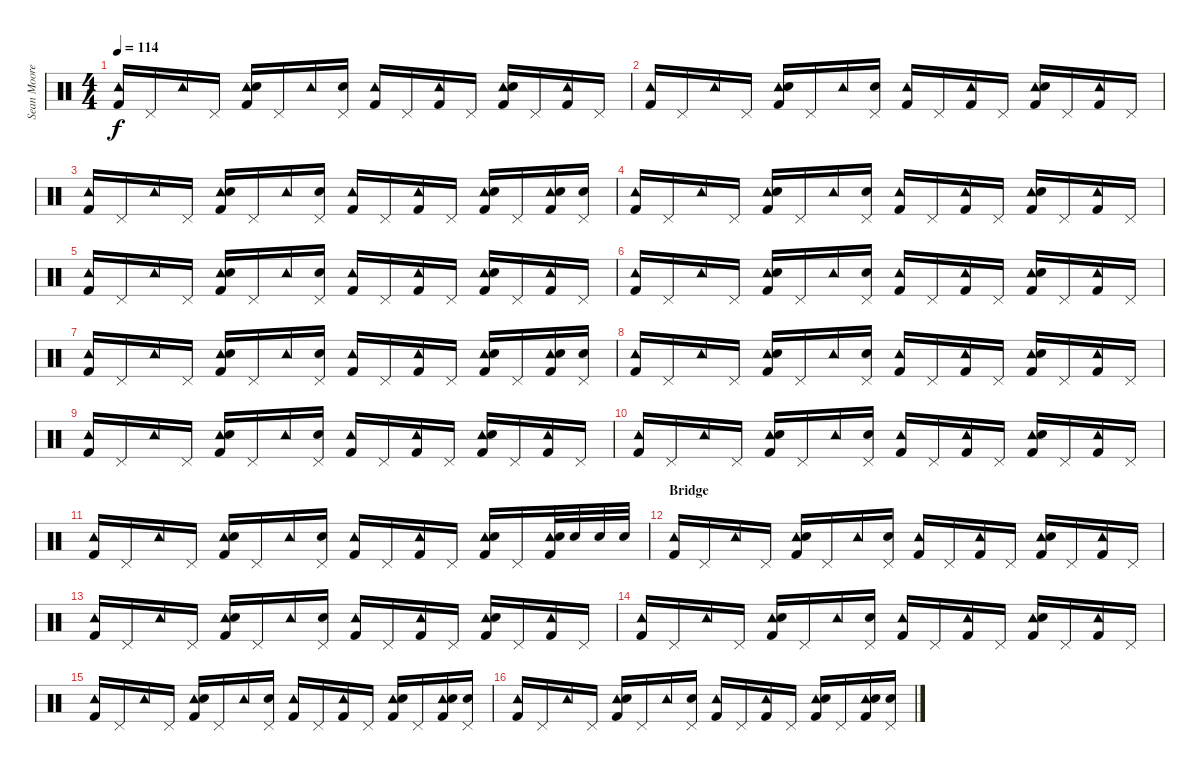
\track ("Sean Moore" "Sean Moore") {instrument percussion}
\staff {score}
\articulation defaults
\ts (4 4)
\tempo 114
\clef neutral
\ks c
("Tambourine (hit)" "Kick (hit) 2").16{dy f} "Pedal Hi-Hat (hit)".16 "Tambourine (hit)".16 "Pedal Hi-Hat (hit)".16 ("Tambourine (hit)" "Snare (hit) 2" "Kick (hit) 2").16 "Pedal Hi-Hat (hit)".16 "Tambourine (hit)".16 ("Snare (hit) 2" "Pedal Hi-Hat (hit)").16 ("Tambourine (hit)" "Kick (hit) 2").16 "Pedal Hi-Hat (hit)".16 ("Tambourine (hit)" "Kick (hit) 2").16 "Pedal Hi-Hat (hit)".16 ("Tambourine (hit)" "Snare (hit) 2" "Kick (hit) 2").16 "Pedal Hi-Hat (hit)".16 ("Tambourine (hit)" "Kick (hit) 2").16 "Pedal Hi-Hat (hit)".16 |
("Tambourine (hit)" "Kick (hit) 2").16 "Pedal Hi-Hat (hit)".16 "Tambourine (hit)".16 "Pedal Hi-Hat (hit)".16 ("Tambourine (hit)" "Snare (hit) 2" "Kick (hit) 2").16 "Pedal Hi-Hat (hit)".16 "Tambourine (hit)".16 ("Snare (hit) 2" "Pedal Hi-Hat (hit)").16 ("Tambourine (hit)" "Kick (hit) 2").16 "Pedal Hi-Hat (hit)".16 ("Tambourine (hit)" "Kick (hit) 2").16 "Pedal Hi-Hat (hit)".16 ("Tambourine (hit)" "Snare (hit) 2" "Kick (hit) 2").16 "Pedal Hi-Hat (hit)".16 ("Tambourine (hit)" "Kick (hit) 2").16 "Pedal Hi-Hat (hit)".16 |
("Tambourine (hit)" "Kick (hit) 2").16 "Pedal Hi-Hat (hit)".16 "Tambourine (hit)".16 "Pedal Hi-Hat (hit)".16 ("Tambourine (hit)" "Snare (hit) 2" "Kick (hit) 2").16 "Pedal Hi-Hat (hit)".16 "Tambourine (hit)".16 ("Snare (hit) 2" "Pedal Hi-Hat (hit)").16 ("Tambourine (hit)" "Kick (hit) 2").16 "Pedal Hi-Hat (hit)".16 ("Tambourine (hit)" "Kick (hit) 2").16 "Pedal Hi-Hat (hit)".16 ("Tambourine (hit)" "Snare (hit) 2" "Kick (hit) 2").16 "Pedal Hi-Hat (hit)".16 ("Tambourine (hit)" "Snare (hit) 2" "Kick (hit) 2").16 ("Snare (hit) 2" "Pedal Hi-Hat (hit)").16 |
("Tambourine (hit)" "Kick (hit) 2").16 "Pedal Hi-Hat (hit)".16 "Tambourine (hit)".16 "Pedal Hi-Hat (hit)".16 ("Tambourine (hit)" "Snare (hit) 2" "Kick (hit) 2").16 "Pedal Hi-Hat (hit)".16 "Tambourine (hit)".16 ("Snare (hit) 2" "Pedal Hi-Hat (hit)").16 ("Tambourine (hit)" "Kick (hit) 2").16 "Pedal Hi-Hat (hit)".16 ("Tambourine (hit)" "Kick (hit) 2").16 "Pedal Hi-Hat (hit)".16 ("Tambourine (hit)" "Snare (hit) 2" "Kick (hit) 2").16 "Pedal Hi-Hat (hit)".16 ("Tambourine (hit)" "Kick (hit) 2").16 "Pedal Hi-Hat (hit)".16 |
("Tambourine (hit)" "Kick (hit) 2").16 "Pedal Hi-Hat (hit)".16 "Tambourine (hit)".16 "Pedal Hi-Hat (hit)".16 ("Tambourine (hit)" "Snare (hit) 2" "Kick (hit) 2").16 "Pedal Hi-Hat (hit)".16 "Tambourine (hit)".16 ("Snare (hit) 2" "Pedal Hi-Hat (hit)").16 ("Tambourine (hit)" "Kick (hit) 2").16 "Pedal Hi-Hat (hit)".16 ("Tambourine (hit)" "Kick (hit) 2").16 "Pedal Hi-Hat (hit)".16 ("Tambourine (hit)" "Snare (hit) 2" "Kick (hit) 2").16 "Pedal Hi-Hat (hit)".16 ("Tambourine (hit)" "Kick (hit) 2").16 "Pedal Hi-Hat (hit)".16 |
("Tambourine (hit)" "Kick (hit) 2").16 "Pedal Hi-Hat (hit)".16 "Tambourine (hit)".16 "Pedal Hi-Hat (hit)".16 ("Tambourine (hit)" "Snare (hit) 2" "Kick (hit) 2").16 "Pedal Hi-Hat (hit)".16 "Tambourine (hit)".16 ("Snare (hit) 2" "Pedal Hi-Hat (hit)").16 ("Tambourine (hit)" "Kick (hit) 2").16 "Pedal Hi-Hat (hit)".16 ("Tambourine (hit)" "Kick (hit) 2").16 "Pedal Hi-Hat (hit)".16 ("Tambourine (hit)" "Snare (hit) 2" "Kick (hit) 2").16 "Pedal Hi-Hat (hit)".16 ("Tambourine (hit)" "Kick (hit) 2").16 "Pedal Hi-Hat (hit)".16 |
("Tambourine (hit)" "Kick (hit) 2").16 "Pedal Hi-Hat (hit)".16 "Tambourine (hit)".16 "Pedal Hi-Hat (hit)".16 ("Tambourine (hit)" "Snare (hit) 2" "Kick (hit) 2").16 "Pedal Hi-Hat (hit)".16 "Tambourine (hit)".16 ("Snare (hit) 2" "Pedal Hi-Hat (hit)").16 ("Tambourine (hit)" "Kick (hit) 2").16 "Pedal Hi-Hat (hit)".16 ("Tambourine (hit)" "Kick (hit) 2").16 "Pedal Hi-Hat (hit)".16 ("Tambourine (hit)" "Snare (hit) 2" "Kick (hit) 2").16 "Pedal Hi-Hat (hit)".16 ("Tambourine (hit)" "Snare (hit) 2" "Kick (hit) 2").16 ("Snare (hit) 2" "Pedal Hi-Hat (hit)").16 |
("Tambourine (hit)" "Kick (hit) 2").16 "Pedal Hi-Hat (hit)".16 "Tambourine (hit)".16 "Pedal Hi-Hat (hit)".16 ("Tambourine (hit)" "Snare (hit) 2" "Kick (hit) 2").16 "Pedal Hi-Hat (hit)".16 "Tambourine (hit)".16 ("Snare (hit) 2" "Pedal Hi-Hat (hit)").16 ("Tambourine (hit)" "Kick (hit) 2").16 "Pedal Hi-Hat (hit)".16 ("Tambourine (hit)" "Kick (hit) 2").16 "Pedal Hi-Hat (hit)".16 ("Tambourine (hit)" "Snare (hit) 2" "Kick (hit) 2").16 "Pedal Hi-Hat (hit)".16 ("Tambourine (hit)" "Kick (hit) 2").16 "Pedal Hi-Hat (hit)".16 |
("Tambourine (hit)" "Kick (hit) 2").16 "Pedal Hi-Hat (hit)".16 "Tambourine (hit)".16 "Pedal Hi-Hat (hit)".16 ("Tambourine (hit)" "Snare (hit) 2" "Kick (hit) 2").16 "Pedal Hi-Hat (hit)".16 "Tambourine (hit)".16 ("Snare (hit) 2" "Pedal Hi-Hat (hit)").16 ("Tambourine (hit)" "Kick (hit) 2").16 "Pedal Hi-Hat (hit)".16 ("Tambourine (hit)" "Kick (hit) 2").16 "Pedal Hi-Hat (hit)".16 ("Tambourine (hit)" "Snare (hit) 2" "Kick (hit) 2").16 "Pedal Hi-Hat (hit)".16 ("Tambourine (hit)" "Kick (hit) 2").16 "Pedal Hi-Hat (hit)".16 |
("Tambourine (hit)" "Kick (hit) 2").16 "Pedal Hi-Hat (hit)".16 "Tambourine (hit)".16 "Pedal Hi-Hat (hit)".16 ("Tambourine (hit)" "Snare (hit) 2" "Kick (hit) 2").16 "Pedal Hi-Hat (hit)".16 "Tambourine (hit)".16 ("Snare (hit) 2" "Pedal Hi-Hat (hit)").16 ("Tambourine (hit)" "Kick (hit) 2").16 "Pedal Hi-Hat (hit)".16 ("Tambourine (hit)" "Kick (hit) 2").16 "Pedal Hi-Hat (hit)".16 ("Tambourine (hit)" "Snare (hit) 2" "Kick (hit) 2").16 "Pedal Hi-Hat (hit)".16 ("Tambourine (hit)" "Kick (hit) 2").16 "Pedal Hi-Hat (hit)".16 |
("Tambourine (hit)" "Kick (hit) 2").16 "Pedal Hi-Hat (hit)".16 "Tambourine (hit)".16 "Pedal Hi-Hat (hit)".16 ("Tambourine (hit)" "Snare (hit) 2" "Kick (hit) 2").16 "Pedal Hi-Hat (hit)".16 "Tambourine (hit)".16 ("Snare (hit) 2" "Pedal Hi-Hat (hit)").16 ("Tambourine (hit)" "Kick (hit) 2").16 "Pedal Hi-Hat (hit)".16 ("Tambourine (hit)" "Kick (hit) 2").16 "Pedal Hi-Hat (hit)".16 ("Tambourine (hit)" "Snare (hit) 2" "Kick (hit) 2").16 "Pedal Hi-Hat (hit)".16 ("Tambourine (hit)" "Snare (hit) 2" "Kick (hit) 2").32 "Snare (hit) 2".32 "Snare (hit) 2".32 "Snare (hit) 2".32 |
\section ("" "Bridge")
("Tambourine (hit)" "Kick (hit) 2").16 "Pedal Hi-Hat (hit)".16 "Tambourine (hit)".16 "Pedal Hi-Hat (hit)".16 ("Tambourine (hit)" "Snare (hit) 2" "Kick (hit) 2").16 "Pedal Hi-Hat (hit)".16 "Tambourine (hit)".16 ("Snare (hit) 2" "Pedal Hi-Hat (hit)").16 ("Tambourine (hit)" "Kick (hit) 2").16 "Pedal Hi-Hat (hit)".16 ("Tambourine (hit)" "Kick (hit) 2").16 "Pedal Hi-Hat (hit)".16 ("Tambourine (hit)" "Snare (hit) 2" "Kick (hit) 2").16 "Pedal Hi-Hat (hit)".16 ("Tambourine (hit)" "Kick (hit) 2").16 "Pedal Hi-Hat (hit)".16 |
("Tambourine (hit)" "Kick (hit) 2").16 "Pedal Hi-Hat (hit)".16 "Tambourine (hit)".16 "Pedal Hi-Hat (hit)".16 ("Tambourine (hit)" "Snare (hit) 2" "Kick (hit) 2").16 "Pedal Hi-Hat (hit)".16 "Tambourine (hit)".16 ("Snare (hit) 2" "Pedal Hi-Hat (hit)").16 ("Tambourine (hit)" "Kick (hit) 2").16 "Pedal Hi-Hat (hit)".16 ("Tambourine (hit)" "Kick (hit) 2").16 "Pedal Hi-Hat (hit)".16 ("Tambourine (hit)" "Snare (hit) 2" "Kick (hit) 2").16 "Pedal Hi-Hat (hit)".16 ("Tambourine (hit)" "Kick (hit) 2").16 "Pedal Hi-Hat (hit)".16 |
("Tambourine (hit)" "Kick (hit) 2").16 "Pedal Hi-Hat (hit)".16 "Tambourine (hit)".16 "Pedal Hi-Hat (hit)".16 ("Tambourine (hit)" "Snare (hit) 2" "Kick (hit) 2").16 "Pedal Hi-Hat (hit)".16 "Tambourine (hit)".16 ("Snare (hit) 2" "Pedal Hi-Hat (hit)").16 ("Tambourine (hit)" "Kick (hit) 2").16 "Pedal Hi-Hat (hit)".16 ("Tambourine (hit)" "Kick (hit) 2").16 "Pedal Hi-Hat (hit)".16 ("Tambourine (hit)" "Snare (hit) 2" "Kick (hit) 2").16 "Pedal Hi-Hat (hit)".16 ("Tambourine (hit)" "Kick (hit) 2").16 "Pedal Hi-Hat (hit)".16 |
("Tambourine (hit)" "Kick (hit) 2").16 "Pedal Hi-Hat (hit)".16 "Tambourine (hit)".16 "Pedal Hi-Hat (hit)".16 ("Tambourine (hit)" "Snare (hit) 2" "Kick (hit) 2").16 "Pedal Hi-Hat (hit)".16 "Tambourine (hit)".16 ("Snare (hit) 2" "Pedal Hi-Hat (hit)").16 ("Tambourine (hit)" "Kick (hit) 2").16 "Pedal Hi-Hat (hit)".16 ("Tambourine (hit)" "Kick (hit) 2").16 "Pedal Hi-Hat (hit)".16 ("Tambourine (hit)" "Snare (hit) 2" "Kick (hit) 2").16 "Pedal Hi-Hat (hit)".16 ("Tambourine (hit)" "Snare (hit) 2" "Kick (hit) 2").16 ("Snare (hit) 2" "Pedal Hi-Hat (hit)").16 |
("Tambourine (hit)" "Kick (hit) 2").16 "Pedal Hi-Hat (hit)".16 "Tambourine (hit)".16 "Pedal Hi-Hat (hit)".16 ("Tambourine (hit)" "Snare (hit) 2" "Kick (hit) 2").16 "Pedal Hi-Hat (hit)".16 "Tambourine (hit)".16 ("Snare (hit) 2" "Pedal Hi-Hat (hit)").16 ("Tambourine (hit)" "Kick (hit) 2").16 "Pedal Hi-Hat (hit)".16 ("Tambourine (hit)" "Kick (hit) 2").16 "Pedal Hi-Hat (hit)".16 ("Tambourine (hit)" "Snare (hit) 2" "Kick (hit) 2").16 "Pedal Hi-Hat (hit)".16 ("Tambourine (hit)" "Snare (hit) 2" "Kick (hit) 2").16 ("Snare (hit) 2" "Pedal Hi-Hat (hit)").16
